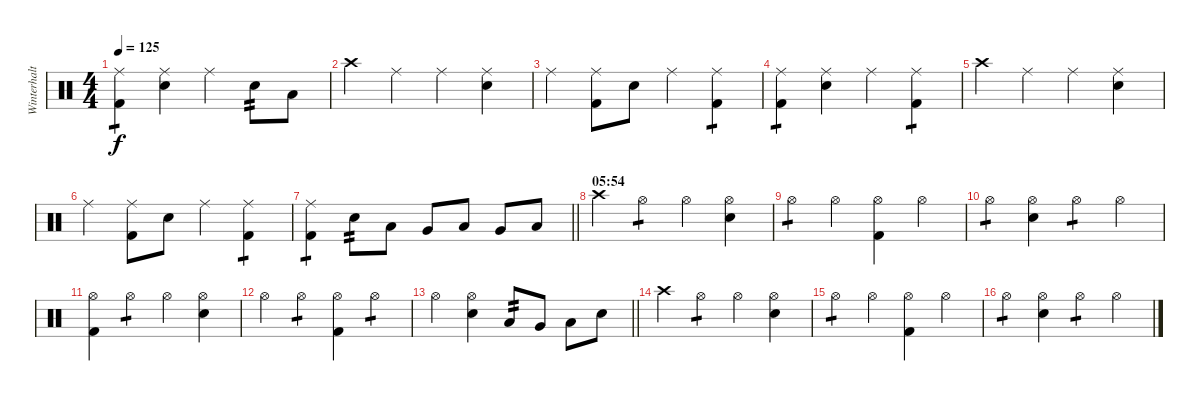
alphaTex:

\track ("Winterhalten" "Winterhalt") {instrument percussion}
\staff {score}
\articulation defaults
\ts (4 4)
\tempo 125
\clef neutral
\ks c
("Ride (middle)" "Kick (hit) 2").4{tp 1 dy f} ("Ride (middle)" "Snare (hit) 2").4 "Ride (middle)".4 "Snare (hit) 2".8{tp 2} "Low Tom (hit)".8 |
"Crash high (hit)".4 "Ride (middle)".4 "Ride (middle)".4 ("Ride (middle)" "Snare (hit) 2").4 |
"Ride (middle)".4 ("Ride (middle)" "Kick (hit) 2").8 "Snare (hit) 2".8 "Ride (middle)".4 ("Ride (middle)" "Kick (hit) 2").4{tp 1} |
("Ride (middle)" "Kick (hit) 2").4{tp 1} ("Ride (middle)" "Snare (hit) 2").4 "Ride (middle)".4 ("Ride (middle)" "Kick (hit) 2").4{tp 1} |
"Crash high (hit)".4 "Ride (middle)".4 "Ride (middle)".4 ("Ride (middle)" "Snare (hit) 2").4 |
"Ride (middle)".4 ("Ride (middle)" "Kick (hit) 2").8 "Snare (hit) 2".8 "Ride (middle)".4 ("Ride (middle)" "Kick (hit) 2").4{tp 1} |
\barLineRight lightlight
("Ride (middle)" "Kick (hit) 2").4{tp 1} "Snare (hit) 2".8{tp 2} "Low Tom (hit)".8 "Very Low Tom (hit)".8 "Low Tom (hit)".8 "Very Low Tom (hit)".8 "Low Floor Tom (hit)".8 |
\section ("" "05:54")
"Crash high (hit)".4 "Hi-Hat (open)".4{tp 1} "Hi-Hat (open)".4 ("Hi-Hat (open)" "Snare (hit) 2").4 |
"Hi-Hat (open)".4{tp 1} "Hi-Hat (open)".4 ("Hi-Hat (open)" "Kick (hit) 2").4 "Hi-Hat (open)".4 |
"Hi-Hat (open)".4{tp 1} ("Hi-Hat (open)" "Snare (hit) 2").4 "Hi-Hat (open)".4{tp 1} "Hi-Hat (open)".4 |
("Hi-Hat (open)" "Kick (hit) 2").4 "Hi-Hat (open)".4{tp 1} "Hi-Hat (open)".4 ("Hi-Hat (open)" "Snare (hit) 2").4 |
"Hi-Hat (open)".4 "Hi-Hat (open)".4{tp 1} ("Hi-Hat (open)" "Kick (hit) 2").4 "Hi-Hat (open)".4{tp 1} |
\barLineRight lightlight "Hi-Hat (open)".4
("Hi-Hat (open)" "Snare (hit) 2").4 "Low Tom (hit)".8{tp 2} "Very Low Tom (hit)".8 "Low Floor Tom (hit)".8 "Snare (hit) 2".8 |
"Crash high (hit)".4 "Hi-Hat (open)".4{tp 1} "Hi-Hat (open)".4 ("Hi-Hat (open)" "Snare (hit) 2").4 |
"Hi-Hat (open)".4{tp 1} "Hi-Hat (open)".4 ("Hi-Hat (open)" "Kick (hit) 2").4 "Hi-Hat (open)".4 |
"Hi-Hat (open)".4{tp 1} ("Hi-Hat (open)" "Snare (hit) 2").4 "Hi-Hat (open)".4{tp 1} "Hi-Hat (open)".4
